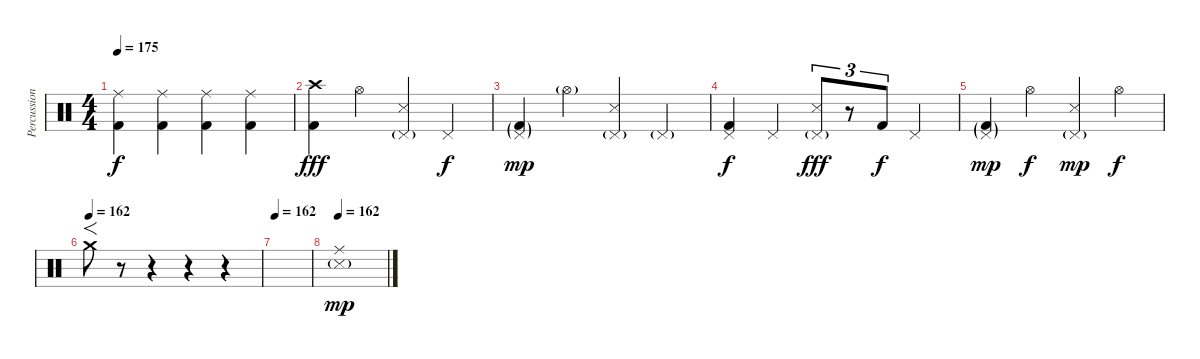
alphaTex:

\track ("Percussion" "Percussion") {instrument percussion}
\staff {score}
\articulation defaults
\ts (4 4)
\tempo 175
\clef neutral
\ks c
("Ride (middle)" "Kick (hit) 2").4{dy f} ("Ride (middle)" "Kick (hit) 2").4 ("Ride (middle)" "Kick (hit) 2").4 ("Ride (middle)" "Kick (hit) 2").4 |
("Crash high (hit)" "Kick (hit) 2").4{dy fff} "Hi-Hat (open)".4 ("Pedal Hi-Hat (hit)"{g} "Snare (side stick) 3").4 "Pedal Hi-Hat (hit)".4{dy f} |
("Pedal Hi-Hat (hit)"{g} "Kick (hit) 2"{g}).4{dy mp} "Hi-Hat (open)"{g}.4 ("Pedal Hi-Hat (hit)"{g} "Snare (side stick) 3").4 "Pedal Hi-Hat (hit)"{g}.4 |
("Pedal Hi-Hat (hit)" "Kick (hit) 2").4{dy f} "Pedal Hi-Hat (hit)".4 ("Pedal Hi-Hat (hit)"{g} "Snare (side stick) 3").8{tu (3 2) dy fff} r.8{tu (3 2)} "Kick (hit) 2".8{tu (3 2) dy f} "Pedal Hi-Hat (hit)".4 |
("Pedal Hi-Hat (hit)"{g} "Kick (hit) 2"{g}).4{dy mp} "Hi-Hat (open)".4{dy f} ("Pedal Hi-Hat (hit)"{g} "Snare (side stick) 3").4{dy mp} "Hi-Hat (open)".4{dy f} |
\tempo (162)
"Crash medium (hit)".8{f} r.8 r.4 r.4 r.4 |
\tempo 162
|
\tempo 162
("Ride (middle)" "Snare (side stick) 3"{g}).1{dy mp}
